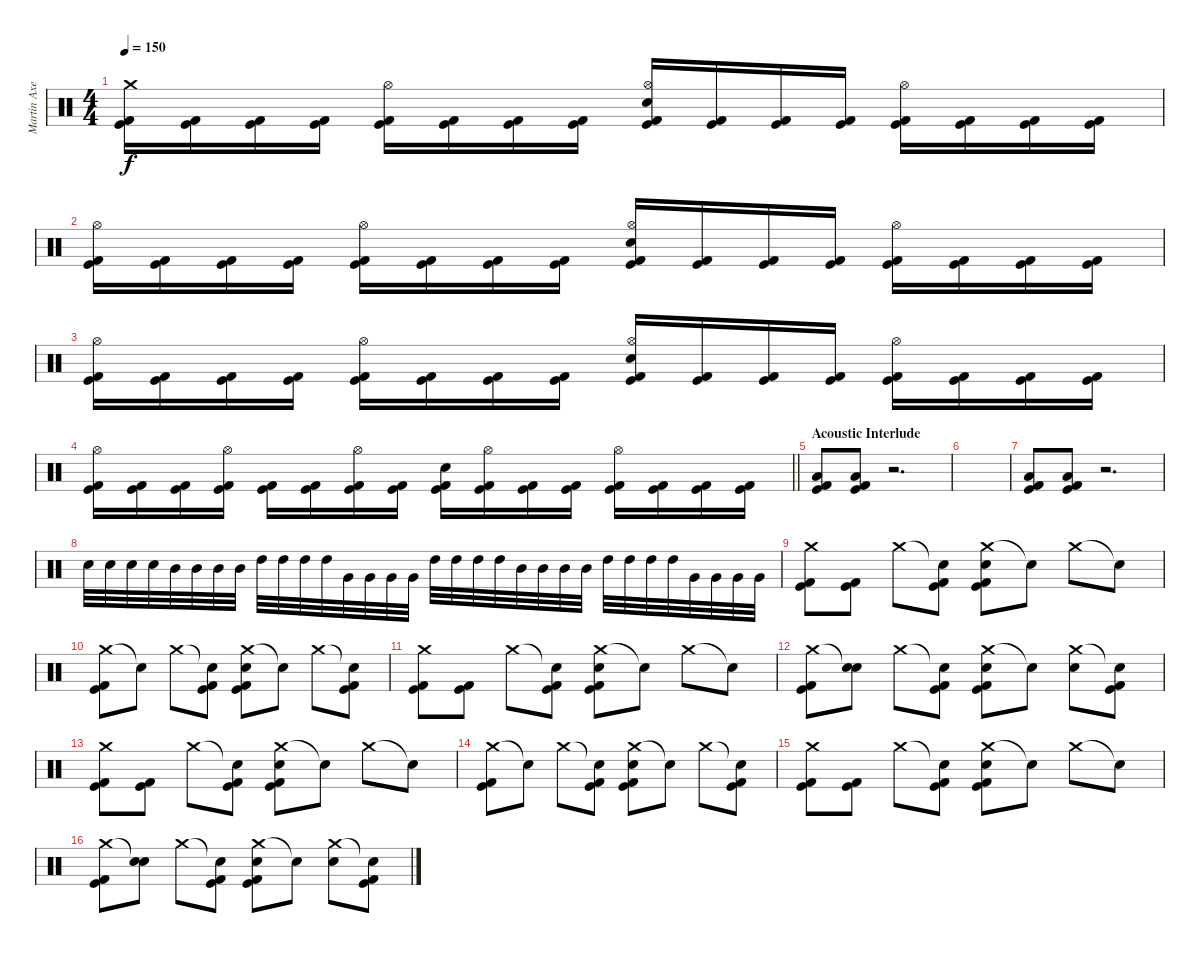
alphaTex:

\track ("Martin Axenrot" "Martin Axe") {instrument percussion}
\staff {score}
\articulation defaults
\ts (4 4)
\tempo 150
\clef neutral
\ks c
("Crash medium (hit)" "Kick (hit) 2" "Kick (hit)").16{dy f} ("Kick (hit) 2" "Kick (hit)").16 ("Kick (hit) 2" "Kick (hit)").16 ("Kick (hit) 2" "Kick (hit)").16 ("Hi-Hat (open)" "Kick (hit) 2" "Kick (hit)").16 ("Kick (hit) 2" "Kick (hit)").16 ("Kick (hit) 2" "Kick (hit)").16 ("Kick (hit) 2" "Kick (hit)").16 ("Hi-Hat (open)" "Electric Snare (hit)" "Kick (hit) 2" "Kick (hit)").16 ("Kick (hit) 2" "Kick (hit)").16 ("Kick (hit) 2" "Kick (hit)").16 ("Kick (hit) 2" "Kick (hit)").16 ("Hi-Hat (open)" "Kick (hit) 2" "Kick (hit)").16 ("Kick (hit) 2" "Kick (hit)").16 ("Kick (hit) 2" "Kick (hit)").16 ("Kick (hit) 2" "Kick (hit)").16 |
("Hi-Hat (open)" "Kick (hit) 2" "Kick (hit)").16 ("Kick (hit) 2" "Kick (hit)").16 ("Kick (hit) 2" "Kick (hit)").16 ("Kick (hit) 2" "Kick (hit)").16 ("Hi-Hat (open)" "Kick (hit) 2" "Kick (hit)").16 ("Kick (hit) 2" "Kick (hit)").16 ("Kick (hit) 2" "Kick (hit)").16 ("Kick (hit) 2" "Kick (hit)").16 ("Hi-Hat (open)" "Electric Snare (hit)" "Kick (hit) 2" "Kick (hit)").16 ("Kick (hit) 2" "Kick (hit)").16 ("Kick (hit) 2" "Kick (hit)").16 ("Kick (hit) 2" "Kick (hit)").16 ("Hi-Hat (open)" "Kick (hit) 2" "Kick (hit)").16 ("Kick (hit) 2" "Kick (hit)").16 ("Kick (hit) 2" "Kick (hit)").16 ("Kick (hit) 2" "Kick (hit)").16 |
("Hi-Hat (open)" "Kick (hit) 2" "Kick (hit)").16 ("Kick (hit) 2" "Kick (hit)").16 ("Kick (hit) 2" "Kick (hit)").16 ("Kick (hit) 2" "Kick (hit)").16 ("Hi-Hat (open)" "Kick (hit) 2" "Kick (hit)").16 ("Kick (hit) 2" "Kick (hit)").16 ("Kick (hit) 2" "Kick (hit)").16 ("Kick (hit) 2" "Kick (hit)").16 ("Hi-Hat (open)" "Electric Snare (hit)" "Kick (hit) 2" "Kick (hit)").16 ("Kick (hit) 2" "Kick (hit)").16 ("Kick (hit) 2" "Kick (hit)").16 ("Kick (hit) 2" "Kick (hit)").16 ("Hi-Hat (open)" "Kick (hit) 2" "Kick (hit)").16 ("Kick (hit) 2" "Kick (hit)").16 ("Kick (hit) 2" "Kick (hit)").16 ("Kick (hit) 2" "Kick (hit)").16 |
\barLineRight lightlight
("Hi-Hat (open)" "Kick (hit) 2" "Kick (hit)").16 ("Kick (hit) 2" "Kick (hit)").16 ("Kick (hit) 2" "Kick (hit)").16 ("Hi-Hat (open)" "Kick (hit) 2" "Kick (hit)").16 ("Kick (hit) 2" "Kick (hit)").16 ("Kick (hit) 2" "Kick (hit)").16 ("Hi-Hat (open)" "Kick (hit) 2" "Kick (hit)").16 ("Kick (hit) 2" "Kick (hit)").16 ("Electric Snare (hit)" "Kick (hit) 2" "Kick (hit)").16 ("Hi-Hat (open)" "Kick (hit) 2" "Kick (hit)").16 ("Kick (hit) 2" "Kick (hit)").16 ("Kick (hit) 2" "Kick (hit)").16 ("Hi-Hat (open)" "Kick (hit) 2" "Kick (hit)").16 ("Kick (hit) 2" "Kick (hit)").16 ("Kick (hit) 2" "Kick (hit)").16 ("Kick (hit) 2" "Kick (hit)").16 |
\section ("" "Acoustic Interlude")
("Low Floor Tom (hit)" "Kick (hit) 2" "Kick (hit)").8 ("Low Floor Tom (hit)" "Kick (hit) 2" "Kick (hit)").8 r.2{d} |
|
("Low Floor Tom (hit)" "Kick (hit) 2" "Kick (hit)").8 ("Low Floor Tom (hit)" "Kick (hit) 2" "Kick (hit)").8 r.2{d} |
"Electric Snare (hit)".32 "Electric Snare (hit)".32 "Electric Snare (hit)".32 "Electric Snare (hit)".32 "Mid Tom (hit)".32 "Mid Tom (hit)".32 "Mid Tom (hit)".32 "Mid Tom (hit)".32 "High Tom (hit)".32 "High Tom (hit)".32 "High Tom (hit)".32 "High Tom (hit)".32 "Very Low Tom (hit)".32 "Very Low Tom (hit)".32 "Very Low Tom (hit)".32 "Very Low Tom (hit)".32 "High Tom (hit)".32 "High Tom (hit)".32 "High Tom (hit)".32 "High Tom (hit)".32 "Mid Tom (hit)".32 "Mid Tom (hit)".32 "Mid Tom (hit)".32 "Mid Tom (hit)".32 "High Tom (hit)".32 "High Tom (hit)".32 "High Tom (hit)".32 "High Tom (hit)".32 "Very Low Tom (hit)".32 "Very Low Tom (hit)".32 "Very Low Tom (hit)".32 "Very Low Tom (hit)".32 |
("Crash medium (hit)" "Kick (hit) 2" "Kick (hit)").8 ("Kick (hit) 2" "Kick (hit)").8 "Crash medium (hit)".8 ("Snare (hit)"{t} "Kick (hit) 2" "Kick (hit)").8 ("Crash medium (hit)" "Electric Snare (hit)" "Kick (hit) 2" "Kick (hit)").8 "Snare (hit)"{t}.8 "Crash medium (hit)".8 "Snare (hit)"{t}.8 |
("Crash medium (hit)" "Kick (hit) 2" "Kick (hit)").8 "Snare (hit)"{t}.8 "Crash medium (hit)".8 ("Snare (hit)"{t} "Kick (hit) 2" "Kick (hit)").8 ("Crash medium (hit)" "Electric Snare (hit)" "Kick (hit) 2" "Kick (hit)").8 "Snare (hit)"{t}.8 "Crash medium (hit)".8 ("Snare (hit)"{t} "Kick (hit) 2" "Kick (hit)").8 |
("Crash medium (hit)" "Kick (hit) 2" "Kick (hit)").8 ("Kick (hit) 2" "Kick (hit)").8 "Crash medium (hit)".8 ("Snare (hit)"{t} "Kick (hit) 2" "Kick (hit)").8 ("Crash medium (hit)" "Electric Snare (hit)" "Kick (hit) 2" "Kick (hit)").8 "Snare (hit)"{t}.8 "Crash medium (hit)".8 "Snare (hit)"{t}.8 |
("Crash medium (hit)" "Kick (hit) 2" "Kick (hit)").8 ("Snare (hit)"{t} "Electric Snare (hit)").8 "Crash medium (hit)".8 ("Snare (hit)"{t} "Kick (hit) 2" "Kick (hit)").8 ("Crash medium (hit)" "Electric Snare (hit)" "Kick (hit) 2" "Kick (hit)").8 "Snare (hit)"{t}.8 ("Crash medium (hit)" "Electric Snare (hit)").8 ("Snare (hit)"{t} "Kick (hit) 2" "Kick (hit)").8 |
("Crash medium (hit)" "Kick (hit) 2" "Kick (hit)").8 ("Kick (hit) 2" "Kick (hit)").8 "Crash medium (hit)".8 ("Snare (hit)"{t} "Kick (hit) 2" "Kick (hit)").8 ("Crash medium (hit)" "Electric Snare (hit)" "Kick (hit) 2" "Kick (hit)").8 "Snare (hit)"{t}.8 "Crash medium (hit)".8 "Snare (hit)"{t}.8 |
("Crash medium (hit)" "Kick (hit) 2" "Kick (hit)").8 "Snare (hit)"{t}.8 "Crash medium (hit)".8 ("Snare (hit)"{t} "Kick (hit) 2" "Kick (hit)").8 ("Crash medium (hit)" "Electric Snare (hit)" "Kick (hit) 2" "Kick (hit)").8 "Snare (hit)"{t}.8 "Crash medium (hit)".8 ("Snare (hit)"{t} "Kick (hit) 2" "Kick (hit)").8 |
("Crash medium (hit)" "Kick (hit) 2" "Kick (hit)").8 ("Kick (hit) 2" "Kick (hit)").8 "Crash medium (hit)".8 ("Snare (hit)"{t} "Kick (hit) 2" "Kick (hit)").8 ("Crash medium (hit)" "Electric Snare (hit)" "Kick (hit) 2" "Kick (hit)").8 "Snare (hit)"{t}.8 "Crash medium (hit)".8 "Snare (hit)"{t}.8 |
("Crash medium (hit)" "Kick (hit) 2" "Kick (hit)").8 ("Snare (hit)"{t} "Electric Snare (hit)").8 "Crash medium (hit)".8 ("Snare (hit)"{t} "Kick (hit) 2" "Kick (hit)").8 ("Crash medium (hit)" "Electric Snare (hit)" "Kick (hit) 2" "Kick (hit)").8 "Snare (hit)"{t}.8 ("Crash medium (hit)" "Electric Snare (hit)").8 ("Snare (hit)"{t} "Kick (hit) 2" "Kick (hit)").8
